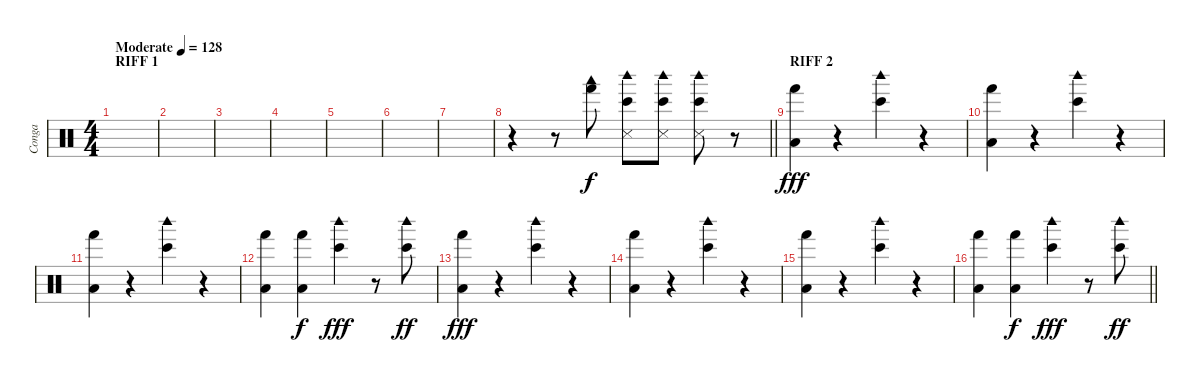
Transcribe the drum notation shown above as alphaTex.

\track ("Conga" "Conga") {instrument percussion}
\staff {score}
\articulation defaults
\ts (4 4)
\section ("" "RIFF 1")
\tempo (128 "Moderate")
\clef neutral
\ks c
|
|
|
|
|
|
|
\barLineRight lightlight
r.4 r.8 ("Hand (hit)" "Woodblock low (hit)").8 ("Bongo High (hit)" "Woodblock high (hit)" "Snare (side stick) 3").8 ("Bongo High (hit)" "Woodblock high (hit)" "Snare (side stick) 3").8 ("Bongo High (hit)" "Woodblock high (hit)" "Snare (side stick) 3").8 r.8 |
\section ("" "RIFF 2")
("Hand (hit)" "Low Floor Tom (hit)").4{dy fff} r.4 ("Bongo High (hit)" "Woodblock high (hit)").4 r.4 |
("Hand (hit)" "Low Floor Tom (hit)").4 r.4 ("Bongo High (hit)" "Woodblock high (hit)").4 r.4 |
("Hand (hit)" "Low Floor Tom (hit)").4 r.4 ("Bongo High (hit)" "Woodblock high (hit)").4 r.4 |
("Hand (hit)" "Low Floor Tom (hit)").4 ("Hand (hit)" "Low Floor Tom (hit)").4{dy f} ("Bongo High (hit)" "Woodblock high (hit)").4{dy fff} r.8 ("Bongo High (hit)" "Woodblock high (hit)").8{dy ff} |
("Hand (hit)" "Low Floor Tom (hit)").4{dy fff} r.4 ("Bongo High (hit)" "Woodblock high (hit)").4 r.4 |
("Hand (hit)" "Low Floor Tom (hit)").4 r.4 ("Bongo High (hit)" "Woodblock high (hit)").4 r.4 |
("Hand (hit)" "Low Floor Tom (hit)").4 r.4 ("Bongo High (hit)" "Woodblock high (hit)").4 r.4 |
\barLineRight lightlight
("Hand (hit)" "Low Floor Tom (hit)").4 ("Hand (hit)" "Low Floor Tom (hit)").4{dy f} ("Bongo High (hit)" "Woodblock high (hit)").4{dy fff} r.8 ("Bongo High (hit)" "Woodblock high (hit)").8{dy ff}
